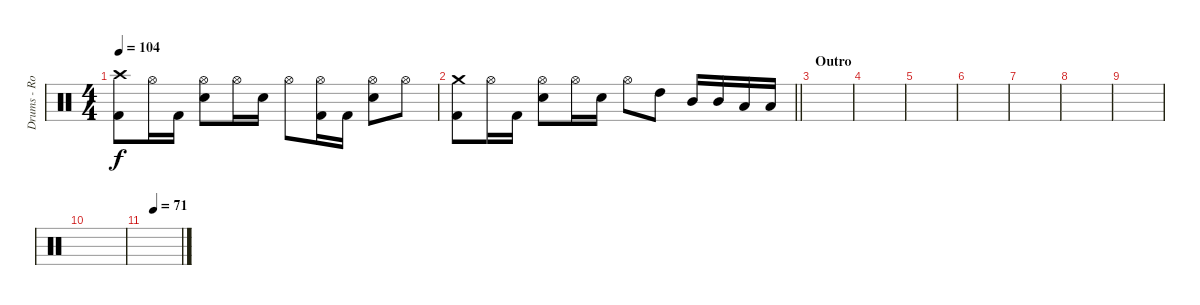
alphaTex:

\track ("Drums - Rob Bourdon" "Drums - Ro") {instrument percussion}
\staff {score}
\articulation defaults
\ts (4 4)
\tempo 104
\clef neutral
\ks c
("Crash high (hit)" "Kick (hit) 2").8{dy f} "Hi-Hat (open)".16 "Kick (hit) 2".16 ("Hi-Hat (open)" "Snare (hit) 2").8 "Hi-Hat (open)".16 "Snare (hit) 2".16 "Hi-Hat (open)".8 ("Hi-Hat (open)" "Kick (hit) 2").16 "Kick (hit) 2".16 ("Hi-Hat (open)" "Snare (hit) 2").8 "Hi-Hat (open)".8 |
\barLineRight lightlight
("Crash medium (hit)" "Kick (hit) 2").8 "Hi-Hat (open)".16 "Kick (hit) 2".16 ("Hi-Hat (open)" "Snare (hit) 2").8 "Hi-Hat (open)".16 "Snare (hit) 2".16 "Hi-Hat (open)".8 "High Tom (hit)".8 "Mid Tom (hit)".16 "Mid Tom (hit)".16 "Low Tom (hit)".16 "Low Tom (hit)".16 |
\section ("" "Outro")
|
|
|
|
|
|
|
|
\tempo (71 0.25)
